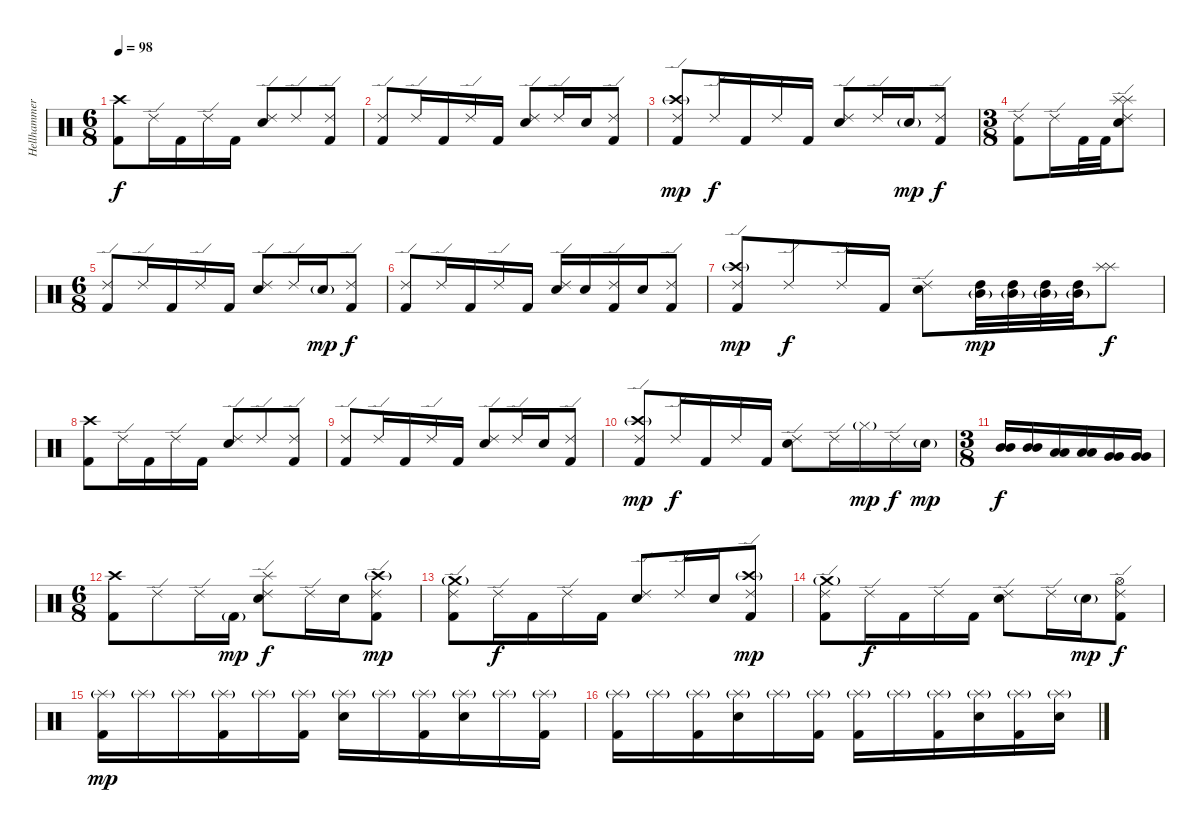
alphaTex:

\track ("Hellhammer (Drums)" "Hellhammer") {instrument percussion}
\staff {score}
\articulation defaults
\ts (6 8)
\tempo 98
\clef neutral
\ks c
("Kick (hit) 2" "Crash high (hit)").8{dy f} "Ride (edge) 2".16 "Kick (hit) 2".16 "Ride (edge) 2".16 "Kick (hit) 2".16 ("Electric Snare (hit)" "Ride (edge) 2").8 "Ride (edge) 2".8 ("Kick (hit) 2" "Ride (edge) 2").8 |
("Kick (hit) 2" "Ride (edge) 2").8 "Ride (edge) 2".16 "Kick (hit) 2".16 "Ride (edge) 2".16 "Kick (hit) 2".16 ("Electric Snare (hit)" "Ride (edge) 2").8 "Ride (edge) 2".16 "Electric Snare (hit)".16 ("Kick (hit) 2" "Ride (edge) 2").8 |
("Kick (hit) 2" "Ride (edge) 2" "Crash high (hit)"{g}).8{dy mp} "Ride (edge) 2".16{dy f} "Kick (hit) 2".16 "Ride (edge) 2".16 "Kick (hit) 2".16 ("Electric Snare (hit)" "Ride (edge) 2").8 "Ride (edge) 2".16 "Electric Snare (hit)"{g}.16{dy mp} ("Kick (hit) 2" "Ride (edge) 2").8{dy f} |
\ts (3 8)
("Kick (hit) 2" "Ride (edge) 2").8 "Ride (edge) 2".16 "Kick (hit) 2".32 "Kick (hit) 2".32 ("Electric Snare (hit)" "Ride (edge) 2" "Splash (hit)" "Splash (hit)").8 |
\ts (6 8)
("Kick (hit) 2" "Ride (edge) 2").8 "Ride (edge) 2".16 "Kick (hit) 2".16 "Ride (edge) 2".16 "Kick (hit) 2".16 ("Electric Snare (hit)" "Ride (edge) 2").8 "Ride (edge) 2".16 "Electric Snare (hit)"{g}.16{dy mp} ("Kick (hit) 2" "Ride (edge) 2").8{dy f} |
("Kick (hit) 2" "Ride (edge) 2").8 "Ride (edge) 2".16 "Kick (hit) 2".16 "Ride (edge) 2".16 "Kick (hit) 2".16 ("Electric Snare (hit)" "Ride (edge) 2").16 "Electric Snare (hit)".16 ("Kick (hit) 2" "Ride (edge) 2").16 "Electric Snare (hit)".16 ("Kick (hit) 2" "Ride (edge) 2").8 |
("Kick (hit) 2" "Ride (edge) 2" "Crash high (hit)"{g}).8{dy mp} "Ride (edge) 2".8{dy f} "Ride (edge) 2".16 "Kick (hit) 2".16 ("Electric Snare (hit)" "Ride (edge) 2").8 ("High Tom (hit)" "Mid Tom (hit)"{g}).32{dy mp} ("High Tom (hit)" "Mid Tom (hit)"{g}).32 ("High Tom (hit)" "Mid Tom (hit)"{g}).32 ("High Tom (hit)" "Mid Tom (hit)"{g}).32 ("Splash (hit)" "Splash (hit)").8{dy f} |
("Kick (hit) 2" "Crash high (hit)").8 "Ride (edge) 2".16 "Kick (hit) 2".16 "Ride (edge) 2".16 "Kick (hit) 2".16 ("Electric Snare (hit)" "Ride (edge) 2").8 "Ride (edge) 2".8 ("Kick (hit) 2" "Ride (edge) 2").8 |
("Kick (hit) 2" "Ride (edge) 2").8 "Ride (edge) 2".16 "Kick (hit) 2".16 "Ride (edge) 2".16 "Kick (hit) 2".16 ("Electric Snare (hit)" "Ride (edge) 2").8 "Ride (edge) 2".16 "Electric Snare (hit)".16 ("Kick (hit) 2" "Ride (edge) 2").8 |
("Kick (hit) 2" "Ride (edge) 2" "Crash high (hit)"{g}).8{dy mp} "Ride (edge) 2".16{dy f} "Kick (hit) 2".16 "Ride (edge) 2".16 "Kick (hit) 2".16 ("Electric Snare (hit)" "Ride (edge) 2").8 "Ride (edge) 2".16 "Hi-Hat (closed)"{g}.16{dy mp} "Ride (edge) 2".16{dy f} "Electric Snare (hit)"{g}.16{dy mp} |
\ts (3 8)
("Mid Tom (hit)" "Mid Tom (hit)").16{dy f} ("Mid Tom (hit)" "Mid Tom (hit)").16 ("Low Tom (hit)" "Low Tom (hit)").16 ("Low Tom (hit)" "Low Tom (hit)").16 ("Very Low Tom (hit)" "Very Low Tom (hit)").16 ("Very Low Tom (hit)" "Very Low Tom (hit)").16 |
\ts (6 8)
("Kick (hit) 2" "Crash high (hit)").8 "Ride (edge) 2".8 "Ride (edge) 2".16 "Kick (hit) 2"{g}.16{dy mp} ("Electric Snare (hit)" "Ride (edge) 2" "Splash (hit)").8{dy f} "Ride (edge) 2".16 "Electric Snare (hit)".16 ("Kick (hit) 2" "Ride (edge) 2" "Crash high (hit)"{g}).8{dy mp} |
("Kick (hit) 2" "Ride (edge) 2" "Crash medium (hit)"{g}).8 "Ride (edge) 2".16{dy f} "Kick (hit) 2".16 "Ride (edge) 2".16 "Kick (hit) 2".16 ("Electric Snare (hit)" "Ride (edge) 2").8 "Ride (edge) 2".16 "Electric Snare (hit)".16 ("Kick (hit) 2" "Ride (edge) 2" "Crash high (hit)"{g}).8{dy mp} |
("Kick (hit) 2" "Ride (edge) 2" "Crash medium (hit)"{g}).8 "Ride (edge) 2".16{dy f} "Kick (hit) 2".16 "Ride (edge) 2".16 "Kick (hit) 2".16 ("Electric Snare (hit)" "Ride (edge) 2").8 "Ride (edge) 2".16 "Electric Snare (hit)"{g}.16{dy mp} ("Kick (hit) 2" "Ride (edge) 2" "Hi-Hat (open)").8{dy f} |
("Kick (hit) 2" "Splash (hit)"{g}).16{dy mp} "Splash (hit)"{g}.16 "Splash (hit)"{g}.16 ("Kick (hit) 2" "Splash (hit)"{g}).16 "Splash (hit)"{g}.16 ("Kick (hit) 2" "Splash (hit)"{g}).16 ("Electric Snare (hit)" "Splash (hit)"{g}).16 "Splash (hit)"{g}.16 ("Kick (hit) 2" "Splash (hit)"{g}).16 ("Electric Snare (hit)" "Splash (hit)"{g}).16 "Splash (hit)"{g}.16 ("Kick (hit) 2" "Splash (hit)"{g}).16 |
("Kick (hit) 2" "Splash (hit)"{g}).16 "Splash (hit)"{g}.16 ("Kick (hit) 2" "Splash (hit)"{g}).16 ("Electric Snare (hit)" "Splash (hit)"{g}).16 "Splash (hit)"{g}.16 ("Kick (hit) 2" "Splash (hit)"{g}).16 ("Kick (hit) 2" "Splash (hit)"{g}).16 "Splash (hit)"{g}.16 ("Kick (hit) 2" "Splash (hit)"{g}).16 ("Electric Snare (hit)" "Splash (hit)"{g}).16 ("Kick (hit) 2" "Splash (hit)"{g}).16 ("Electric Snare (hit)" "Splash (hit)"{g}).16
